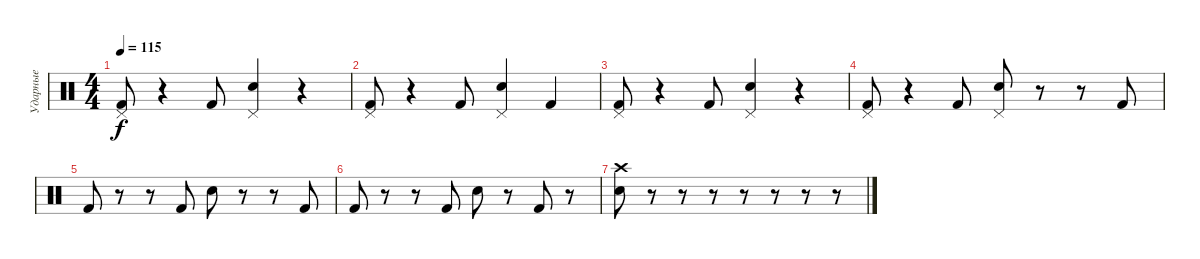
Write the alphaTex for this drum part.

\track ("Ударные" "Ударные") {instrument percussion}
\staff {score}
\articulation defaults
\ts (4 4)
\tempo 115
\clef neutral
\ks c
("Kick (hit) 2" "Pedal Hi-Hat (hit)").8{dy f} r.4 "Kick (hit) 2".8 ("Snare (hit) 2" "Pedal Hi-Hat (hit)").4 r.4 |
("Kick (hit) 2" "Pedal Hi-Hat (hit)").8 r.4 "Kick (hit) 2".8 ("Snare (hit) 2" "Pedal Hi-Hat (hit)").4 "Kick (hit) 2".4 |
("Kick (hit) 2" "Pedal Hi-Hat (hit)").8 r.4 "Kick (hit) 2".8 ("Snare (hit) 2" "Pedal Hi-Hat (hit)").4 r.4 |
("Kick (hit) 2" "Pedal Hi-Hat (hit)").8 r.4 "Kick (hit) 2".8 ("Snare (hit) 2" "Pedal Hi-Hat (hit)").8 r.8 r.8 "Kick (hit) 2".8 |
"Kick (hit) 2".8 r.8 r.8 "Kick (hit) 2".8 "Snare (hit) 2".8 r.8 r.8 "Kick (hit) 2".8 |
"Kick (hit) 2".8 r.8 r.8 "Kick (hit) 2".8 "Snare (hit) 2".8 r.8 "Kick (hit) 2".8 r.8 |
("Snare (hit) 2" "Crash high (hit)").8 r.8 r.8 r.8 r.8 r.8 r.8 r.8
